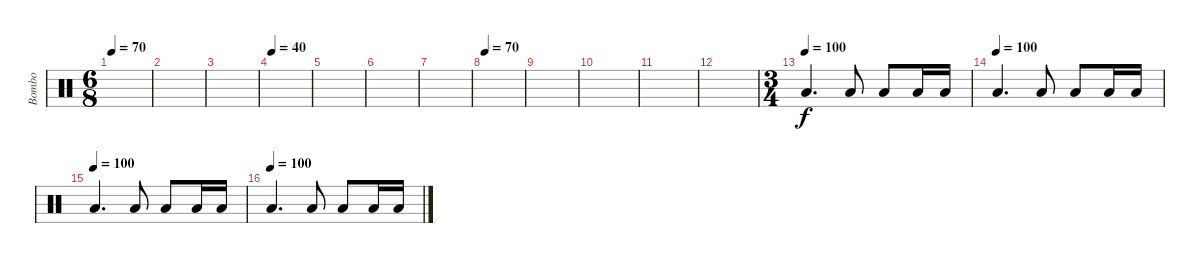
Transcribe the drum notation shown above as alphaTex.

\track ("Bombo" "Bombo") {instrument percussion}
\staff {score}
\articulation defaults
\ts (6 8)
\tempo 70
\clef neutral
\ks c
|
|
|
\tempo 40
|
|
|
|
\tempo 70
|
|
|
|
|
\ts (3 4)
\tempo (100)
"Low Floor Tom (hit)".4{d} "Low Floor Tom (hit)".8 "Low Floor Tom (hit)".8 "Low Floor Tom (hit)".16 "Low Floor Tom (hit)".16 |
\tempo (100)
"Low Floor Tom (hit)".4{d} "Low Floor Tom (hit)".8 "Low Floor Tom (hit)".8 "Low Floor Tom (hit)".16 "Low Floor Tom (hit)".16 |
\tempo (100)
"Low Floor Tom (hit)".4{d} "Low Floor Tom (hit)".8 "Low Floor Tom (hit)".8 "Low Floor Tom (hit)".16 "Low Floor Tom (hit)".16 |
\tempo (100)
"Low Floor Tom (hit)".4{d} "Low Floor Tom (hit)".8 "Low Floor Tom (hit)".8 "Low Floor Tom (hit)".16 "Low Floor Tom (hit)".16
